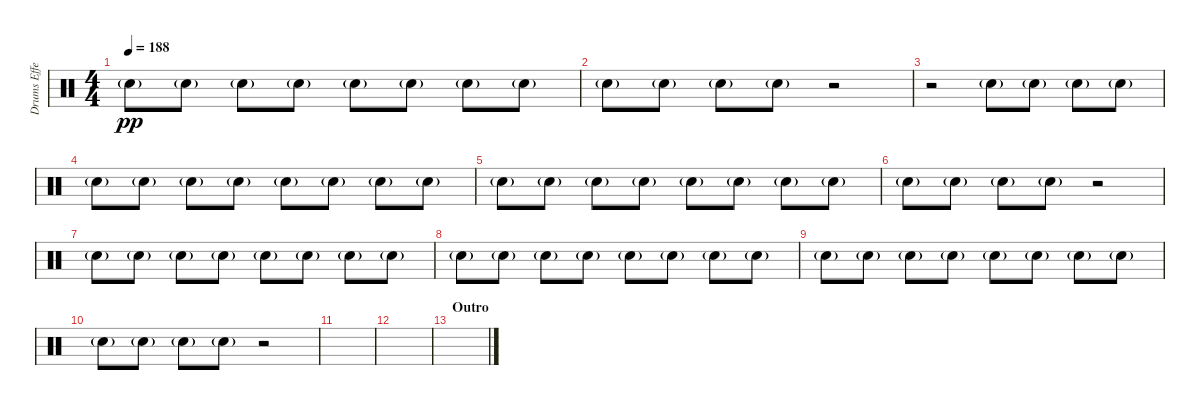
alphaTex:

\track ("Drums Effects" "Drums Effe") {instrument percussion}
\staff {score}
\articulation defaults
\ts (4 4)
\tempo 188
\clef neutral
\ks c "Snare (hit) 2"{g}.8{dy pp} "Snare (hit) 2"{g}.8 "Snare (hit) 2"{g}.8 "Snare (hit) 2"{g}.8 "Snare (hit) 2"{g}.8 "Snare (hit) 2"{g}.8 "Snare (hit) 2"{g}.8 "Snare (hit) 2"{g}.8
|
"Snare (hit) 2"{g}.8 "Snare (hit) 2"{g}.8 "Snare (hit) 2"{g}.8 "Snare (hit) 2"{g}.8 r.2 |
r.2 "Snare (hit) 2"{g}.8 "Snare (hit) 2"{g}.8 "Snare (hit) 2"{g}.8 "Snare (hit) 2"{g}.8 |
"Snare (hit) 2"{g}.8 "Snare (hit) 2"{g}.8 "Snare (hit) 2"{g}.8 "Snare (hit) 2"{g}.8 "Snare (hit) 2"{g}.8 "Snare (hit) 2"{g}.8 "Snare (hit) 2"{g}.8 "Snare (hit) 2"{g}.8 |
"Snare (hit) 2"{g}.8 "Snare (hit) 2"{g}.8 "Snare (hit) 2"{g}.8 "Snare (hit) 2"{g}.8 "Snare (hit) 2"{g}.8 "Snare (hit) 2"{g}.8 "Snare (hit) 2"{g}.8 "Snare (hit) 2"{g}.8 |
"Snare (hit) 2"{g}.8 "Snare (hit) 2"{g}.8 "Snare (hit) 2"{g}.8 "Snare (hit) 2"{g}.8 r.2 |
"Snare (hit) 2"{g}.8 "Snare (hit) 2"{g}.8 "Snare (hit) 2"{g}.8 "Snare (hit) 2"{g}.8 "Snare (hit) 2"{g}.8 "Snare (hit) 2"{g}.8 "Snare (hit) 2"{g}.8 "Snare (hit) 2"{g}.8 |
"Snare (hit) 2"{g}.8 "Snare (hit) 2"{g}.8 "Snare (hit) 2"{g}.8 "Snare (hit) 2"{g}.8 "Snare (hit) 2"{g}.8 "Snare (hit) 2"{g}.8 "Snare (hit) 2"{g}.8 "Snare (hit) 2"{g}.8 |
"Snare (hit) 2"{g}.8 "Snare (hit) 2"{g}.8 "Snare (hit) 2"{g}.8 "Snare (hit) 2"{g}.8 "Snare (hit) 2"{g}.8 "Snare (hit) 2"{g}.8 "Snare (hit) 2"{g}.8 "Snare (hit) 2"{g}.8 |
"Snare (hit) 2"{g}.8 "Snare (hit) 2"{g}.8 "Snare (hit) 2"{g}.8 "Snare (hit) 2"{g}.8 r.2 |
|
|
\section ("" "Outro")
